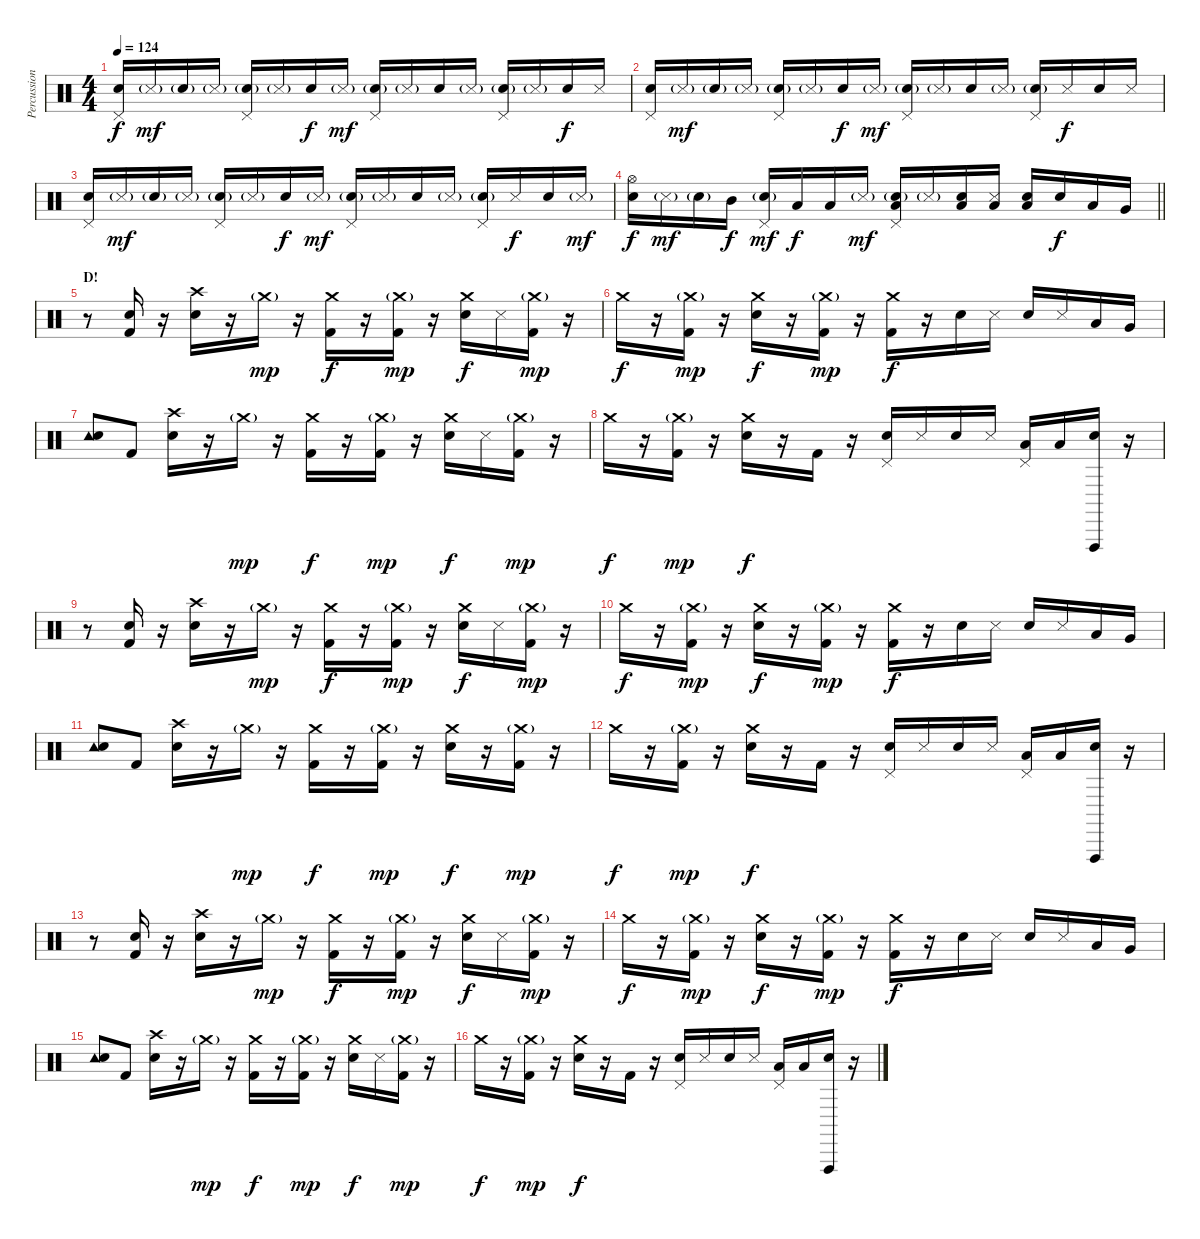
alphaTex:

\track ("Percussion" "Percussion") {instrument percussion}
\staff {score}
\articulation defaults
\ts (4 4)
\tempo 124
\clef neutral
\ks c
("Pedal Hi-Hat (hit)" "Snare (hit) 2").16{dy f} "Metronome (hit)"{g}.16{dy mf} "Snare (hit) 2"{g}.16 "Metronome (hit)"{g}.16 ("Pedal Hi-Hat (hit)" "Snare (hit) 2"{g}).16 "Metronome (hit)"{g}.16 "Snare (hit) 2".16{dy f} "Metronome (hit)"{g}.16{dy mf} ("Pedal Hi-Hat (hit)" "Snare (hit) 2"{g}).16 "Metronome (hit)"{g}.16 "Snare (hit) 2".16 "Metronome (hit)"{g}.16 ("Pedal Hi-Hat (hit)" "Snare (hit) 2"{g}).16 "Metronome (hit)"{g}.16 "Snare (hit) 2".16{dy f} "Metronome (hit)".16 |
("Pedal Hi-Hat (hit)" "Snare (hit) 2").16 "Metronome (hit)"{g}.16{dy mf} "Snare (hit) 2"{g}.16 "Metronome (hit)"{g}.16 ("Pedal Hi-Hat (hit)" "Snare (hit) 2"{g}).16 "Metronome (hit)"{g}.16 "Snare (hit) 2".16{dy f} "Metronome (hit)"{g}.16{dy mf} ("Pedal Hi-Hat (hit)" "Snare (hit) 2"{g}).16 "Metronome (hit)"{g}.16 "Snare (hit) 2".16 "Metronome (hit)"{g}.16 ("Pedal Hi-Hat (hit)" "Snare (hit) 2"{g}).16 "Metronome (hit)".16{dy f} "Snare (hit) 2".16 "Metronome (hit)".16 |
("Pedal Hi-Hat (hit)" "Snare (hit) 2").16 "Metronome (hit)"{g}.16{dy mf} "Snare (hit) 2"{g}.16 "Metronome (hit)"{g}.16 ("Pedal Hi-Hat (hit)" "Snare (hit) 2"{g}).16 "Metronome (hit)"{g}.16 "Snare (hit) 2".16{dy f} "Metronome (hit)"{g}.16{dy mf} ("Pedal Hi-Hat (hit)" "Snare (hit) 2"{g}).16 "Metronome (hit)"{g}.16 "Snare (hit) 2".16 "Metronome (hit)"{g}.16 ("Pedal Hi-Hat (hit)" "Snare (hit) 2"{g}).16 "Metronome (hit)".16{dy f} "Snare (hit) 2".16 "Metronome (hit)"{g}.16{dy mf} |
\barLineRight lightlight
("Hi-Hat (open)" "Snare (hit) 2").16{dy f} "Metronome (hit)"{g}.16{dy mf} "Snare (hit) 2"{g}.16 "Mid Tom (hit)".16{dy f} ("Pedal Hi-Hat (hit)" "Snare (hit) 2"{g}).16{dy mf} "Low Tom (hit)".16{dy f} "Low Tom (hit)".16 "Metronome (hit)"{g}.16{dy mf} ("Pedal Hi-Hat (hit)" "Snare (hit) 2"{g} "Low Floor Tom (hit)").16 "Metronome (hit)"{g}.16 ("Low Tom (hit)" "Snare (hit) 2").16 ("Low Tom (hit)" "Metronome (hit)").16 ("Low Tom (hit)" "Snare (hit) 2").16 "Snare (hit) 2".16{dy f} "Low Tom (hit)".16 "Very Low Tom (hit)".16 |
\section ("" "D!")
r.8 ("Snare (hit)" "Kick (hit) 2").16 r.16 ("Crash high (hit)" "Snare (hit) 2").16 r.16 "Crash medium (hit)"{g}.16{dy mp} r.16 ("Crash medium (hit)" "Kick (hit) 2").16{dy f} r.16 ("Crash medium (hit)"{g} "Kick (hit) 2").16{dy mp} r.16 ("Crash medium (hit)" "Snare (hit) 2").16{dy f} "Metronome (hit)".16 ("Crash medium (hit)"{g} "Kick (hit) 2").16{dy mp} r.16 |
"Crash medium (hit)".16{dy f} r.16 ("Crash medium (hit)"{g} "Kick (hit) 2").16{dy mp} r.16 ("Crash medium (hit)" "Snare (hit) 2").16{dy f} r.16 ("Crash medium (hit)"{g} "Kick (hit) 2").16{dy mp} r.16 ("Crash medium (hit)" "Kick (hit) 2").16{dy f} r.16 "Snare (hit) 2".16 "Metronome (hit)".16 "Snare (hit) 2".16 "Metronome (hit)".16 "Low Tom (hit)".16 "Very Low Tom (hit)".16 |
("Tambourine (hit)" "Snare (hit) 2").8 "Kick (hit) 2".8 ("Crash high (hit)" "Snare (hit) 2").16 r.16 "Crash medium (hit)"{g}.16{dy mp} r.16 ("Crash medium (hit)" "Kick (hit) 2").16{dy f} r.16 ("Crash medium (hit)"{g} "Kick (hit) 2").16{dy mp} r.16 ("Crash medium (hit)" "Snare (hit) 2").16{dy f} "Metronome (hit)".16 ("Crash medium (hit)"{g} "Kick (hit) 2").16{dy mp} r.16 |
"Crash medium (hit)".16{dy f} r.16 ("Crash medium (hit)"{g} "Kick (hit) 2").16{dy mp} r.16 ("Crash medium (hit)" "Snare (hit) 2").16{dy f} r.16 "Kick (hit) 2".16 r.16 ("Pedal Hi-Hat (hit)" "Snare (hit) 2").16 "Metronome (hit)".16 "Snare (hit) 2".16 "Metronome (hit)".16 ("Pedal Hi-Hat (hit)" "Low Tom (hit)").16 "Low Tom (hit)".16 ("Vibraslap (hit)" "Snare (hit) 2").16 r.16 |
r.8 ("Snare (hit)" "Kick (hit) 2").16 r.16 ("Crash high (hit)" "Snare (hit) 2").16 r.16 "Crash medium (hit)"{g}.16{dy mp} r.16 ("Crash medium (hit)" "Kick (hit) 2").16{dy f} r.16 ("Crash medium (hit)"{g} "Kick (hit) 2").16{dy mp} r.16 ("Crash medium (hit)" "Snare (hit) 2").16{dy f} "Metronome (hit)".16 ("Crash medium (hit)"{g} "Kick (hit) 2").16{dy mp} r.16 |
"Crash medium (hit)".16{dy f} r.16 ("Crash medium (hit)"{g} "Kick (hit) 2").16{dy mp} r.16 ("Crash medium (hit)" "Snare (hit) 2").16{dy f} r.16 ("Crash medium (hit)"{g} "Kick (hit) 2").16{dy mp} r.16 ("Crash medium (hit)" "Kick (hit) 2").16{dy f} r.16 "Snare (hit) 2".16 "Metronome (hit)".16 "Snare (hit) 2".16 "Metronome (hit)".16 "Low Tom (hit)".16 "Very Low Tom (hit)".16 |
("Tambourine (hit)" "Snare (hit) 2").8 "Kick (hit) 2".8 ("Crash high (hit)" "Snare (hit) 2").16 r.16 "Crash medium (hit)"{g}.16{dy mp} r.16 ("Crash medium (hit)" "Kick (hit) 2").16{dy f} r.16 ("Crash medium (hit)"{g} "Kick (hit) 2").16{dy mp} r.16 ("Crash medium (hit)" "Snare (hit) 2").16{dy f} r.16 ("Crash medium (hit)"{g} "Kick (hit) 2").16{dy mp} r.16 |
"Crash medium (hit)".16{dy f} r.16 ("Crash medium (hit)"{g} "Kick (hit) 2").16{dy mp} r.16 ("Crash medium (hit)" "Snare (hit) 2").16{dy f} r.16 "Kick (hit) 2".16 r.16 ("Pedal Hi-Hat (hit)" "Snare (hit) 2").16 "Metronome (hit)".16 "Snare (hit) 2".16 "Metronome (hit)".16 ("Pedal Hi-Hat (hit)" "Low Tom (hit)").16 "Low Tom (hit)".16 ("Vibraslap (hit)" "Snare (hit) 2").16 r.16 |
r.8 ("Snare (hit)" "Kick (hit) 2").16 r.16 ("Crash high (hit)" "Snare (hit) 2").16 r.16 "Crash medium (hit)"{g}.16{dy mp} r.16 ("Crash medium (hit)" "Kick (hit) 2").16{dy f} r.16 ("Crash medium (hit)"{g} "Kick (hit) 2").16{dy mp} r.16 ("Crash medium (hit)" "Snare (hit) 2").16{dy f} "Metronome (hit)".16 ("Crash medium (hit)"{g} "Kick (hit) 2").16{dy mp} r.16 |
"Crash medium (hit)".16{dy f} r.16 ("Crash medium (hit)"{g} "Kick (hit) 2").16{dy mp} r.16 ("Crash medium (hit)" "Snare (hit) 2").16{dy f} r.16 ("Crash medium (hit)"{g} "Kick (hit) 2").16{dy mp} r.16 ("Crash medium (hit)" "Kick (hit) 2").16{dy f} r.16 "Snare (hit) 2".16 "Metronome (hit)".16 "Snare (hit) 2".16 "Metronome (hit)".16 "Low Tom (hit)".16 "Very Low Tom (hit)".16 |
("Tambourine (hit)" "Snare (hit) 2").8 "Kick (hit) 2".8 ("Crash high (hit)" "Snare (hit) 2").16 r.16 "Crash medium (hit)"{g}.16{dy mp} r.16 ("Crash medium (hit)" "Kick (hit) 2").16{dy f} r.16 ("Crash medium (hit)"{g} "Kick (hit) 2").16{dy mp} r.16 ("Crash medium (hit)" "Snare (hit) 2").16{dy f} "Metronome (hit)".16 ("Crash medium (hit)"{g} "Kick (hit) 2").16{dy mp} r.16 |
"Crash medium (hit)".16{dy f} r.16 ("Crash medium (hit)"{g} "Kick (hit) 2").16{dy mp} r.16 ("Crash medium (hit)" "Snare (hit) 2").16{dy f} r.16 "Kick (hit) 2".16 r.16 ("Pedal Hi-Hat (hit)" "Snare (hit) 2").16 "Metronome (hit)".16 "Snare (hit) 2".16 "Metronome (hit)".16 ("Pedal Hi-Hat (hit)" "Low Tom (hit)").16 "Low Tom (hit)".16 ("Vibraslap (hit)" "Snare (hit) 2").16 r.16
